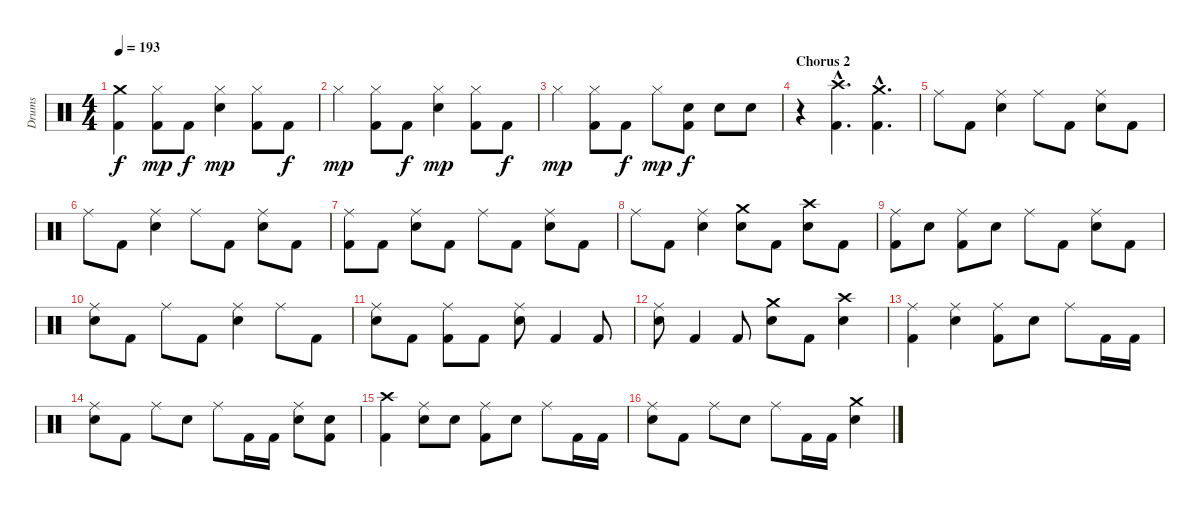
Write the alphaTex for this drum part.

\track ("Drums" "Drums") {instrument percussion}
\staff {score}
\articulation defaults
\ts (4 4)
\tempo 193
\clef neutral
\ks c
("Crash medium (hit)" "Kick (hit) 2").4{dy f} ("Hi-Hat (closed)" "Kick (hit) 2").8{dy mp} "Kick (hit) 2".8{dy f} ("Hi-Hat (closed)" "Snare (hit) 2").4{dy mp} ("Hi-Hat (closed)" "Kick (hit) 2").8 "Kick (hit) 2".8{dy f} |
"Hi-Hat (closed)".4{dy mp} ("Hi-Hat (closed)" "Kick (hit) 2").8 "Kick (hit) 2".8{dy f} ("Hi-Hat (closed)" "Snare (hit) 2").4{dy mp} ("Hi-Hat (closed)" "Kick (hit) 2").8 "Kick (hit) 2".8{dy f} |
"Hi-Hat (closed)".4{dy mp} ("Hi-Hat (closed)" "Kick (hit) 2").8 "Kick (hit) 2".8{dy f} "Hi-Hat (closed)".8{dy mp} ("Snare (hit) 2" "Kick (hit) 2").8{dy f} "Snare (hit) 2".8 "Snare (hit) 2".8 |
\section ("" "Chorus 2")
r.4 ("Crash high (hit)"{hac} "Kick (hit) 2"{hac}).4{d} ("Crash medium (hit)"{hac} "Kick (hit) 2"{hac}).4{d} |
"Ride (middle)".8 "Kick (hit) 2".8 ("Ride (middle)" "Snare (hit) 2").4 "Ride (middle)".8 "Kick (hit) 2".8 ("Ride (middle)" "Snare (hit) 2").8 "Kick (hit) 2".8 |
"Ride (middle)".8 "Kick (hit) 2".8 ("Ride (middle)" "Snare (hit) 2").4 "Ride (middle)".8 "Kick (hit) 2".8 ("Ride (middle)" "Snare (hit) 2").8 "Kick (hit) 2".8 |
("Ride (middle)" "Kick (hit) 2").8 "Kick (hit) 2".8 ("Ride (middle)" "Snare (hit) 2").8 "Kick (hit) 2".8 "Ride (middle)".8 "Kick (hit) 2".8 ("Ride (middle)" "Snare (hit) 2").8 "Kick (hit) 2".8 |
"Ride (middle)".8 "Kick (hit) 2".8 ("Ride (middle)" "Snare (hit) 2").4 ("Crash medium (hit)" "Snare (hit) 2").8 "Kick (hit) 2".8 ("Crash high (hit)" "Snare (hit) 2").8 "Kick (hit) 2".8 |
("Ride (middle)" "Kick (hit) 2").8 "Snare (hit) 2".8 ("Ride (middle)" "Kick (hit) 2").8 "Snare (hit) 2".8 "Ride (middle)".8 "Kick (hit) 2".8 ("Ride (middle)" "Snare (hit) 2").8 "Kick (hit) 2".8 |
("Ride (middle)" "Snare (hit) 2").8 "Kick (hit) 2".8 "Ride (middle)".8 "Kick (hit) 2".8 ("Ride (middle)" "Snare (hit) 2").4 "Ride (middle)".8 "Kick (hit) 2".8 |
("Ride (middle)" "Snare (hit) 2").8 "Kick (hit) 2".8 ("Ride (middle)" "Kick (hit) 2").8 "Kick (hit) 2".8 ("Ride (middle)" "Snare (hit) 2").8 "Kick (hit) 2".4 "Kick (hit) 2".8 |
("Ride (middle)" "Snare (hit) 2").8 "Kick (hit) 2".4 "Kick (hit) 2".8 ("Crash medium (hit)" "Snare (hit) 2").8 "Kick (hit) 2".8 ("Crash high (hit)" "Snare (hit) 2").4 |
("Ride (middle)" "Kick (hit) 2").4 ("Ride (middle)" "Snare (hit) 2").4 ("Ride (middle)" "Kick (hit) 2").8 "Snare (hit) 2".8 "Ride (middle)".8 "Kick (hit) 2".16 "Kick (hit) 2".16 |
("Ride (middle)" "Snare (hit) 2").8 "Kick (hit) 2".8 "Ride (middle)".8 "Snare (hit) 2".8 "Ride (middle)".8 "Kick (hit) 2".16 "Kick (hit) 2".16 ("Ride (middle)" "Snare (hit) 2").8 ("Snare (hit) 2" "Kick (hit) 2").8 |
("Crash high (hit)" "Kick (hit) 2").4 ("Ride (middle)" "Snare (hit) 2").8 "Snare (hit) 2".8 ("Ride (middle)" "Kick (hit) 2").8 "Snare (hit) 2".8 "Ride (middle)".8 "Kick (hit) 2".16 "Kick (hit) 2".16 |
("Ride (middle)" "Snare (hit) 2").8 "Kick (hit) 2".8 "Ride (middle)".8 "Snare (hit) 2".8 "Ride (middle)".8 "Kick (hit) 2".16 "Kick (hit) 2".16 ("Crash medium (hit)" "Snare (hit) 2").4
